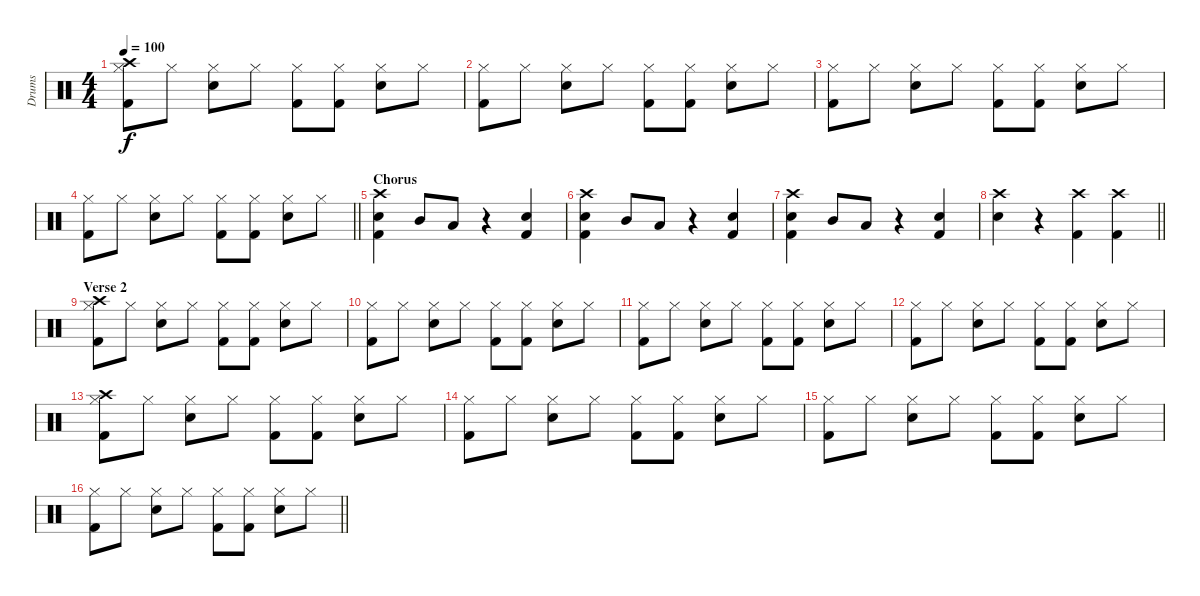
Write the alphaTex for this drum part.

\track ("Drums" "Drums") {instrument percussion}
\staff {score}
\articulation defaults
\ts (4 4)
\tempo 100
\clef neutral
\ks c
("Crash high (hit)" "Hi-Hat (closed)" "Kick (hit) 2").8{dy f} "Hi-Hat (closed)".8 ("Hi-Hat (closed)" "Snare (hit) 2").8 "Hi-Hat (closed)".8 ("Hi-Hat (closed)" "Kick (hit) 2").8 ("Hi-Hat (closed)" "Kick (hit) 2").8 ("Hi-Hat (closed)" "Snare (hit) 2").8 "Hi-Hat (closed)".8 |
("Hi-Hat (closed)" "Kick (hit) 2").8 "Hi-Hat (closed)".8 ("Hi-Hat (closed)" "Snare (hit) 2").8 "Hi-Hat (closed)".8 ("Hi-Hat (closed)" "Kick (hit) 2").8 ("Hi-Hat (closed)" "Kick (hit) 2").8 ("Hi-Hat (closed)" "Snare (hit) 2").8 "Hi-Hat (closed)".8 |
("Hi-Hat (closed)" "Kick (hit) 2").8 "Hi-Hat (closed)".8 ("Hi-Hat (closed)" "Snare (hit) 2").8 "Hi-Hat (closed)".8 ("Hi-Hat (closed)" "Kick (hit) 2").8 ("Hi-Hat (closed)" "Kick (hit) 2").8 ("Hi-Hat (closed)" "Snare (hit) 2").8 "Hi-Hat (closed)".8 |
\barLineRight lightlight
("Hi-Hat (closed)" "Kick (hit) 2").8 "Hi-Hat (closed)".8 ("Hi-Hat (closed)" "Snare (hit) 2").8 "Hi-Hat (closed)".8 ("Hi-Hat (closed)" "Kick (hit) 2").8 ("Hi-Hat (closed)" "Kick (hit) 2").8 ("Hi-Hat (closed)" "Snare (hit) 2").8 "Hi-Hat (closed)".8 |
\section ("" "Chorus")
("Crash high (hit)" "Snare (hit) 2" "Kick (hit) 2").4 "Mid Tom (hit)".8 "Low Tom (hit)".8 r.4 ("Snare (hit) 2" "Kick (hit) 2").4 |
("Crash high (hit)" "Snare (hit) 2" "Kick (hit) 2").4 "Mid Tom (hit)".8 "Low Tom (hit)".8 r.4 ("Snare (hit) 2" "Kick (hit) 2").4 |
("Crash high (hit)" "Snare (hit) 2" "Kick (hit) 2").4 "Mid Tom (hit)".8 "Low Tom (hit)".8 r.4 ("Snare (hit) 2" "Kick (hit) 2").4 |
\barLineRight lightlight
("Crash high (hit)" "Snare (hit) 2").4 r.4 ("Crash high (hit)" "Kick (hit) 2").4 ("Crash high (hit)" "Kick (hit) 2").4 |
\section ("" "Verse 2")
("Crash high (hit)" "Hi-Hat (closed)" "Kick (hit) 2").8 "Hi-Hat (closed)".8 ("Hi-Hat (closed)" "Snare (hit) 2").8 "Hi-Hat (closed)".8 ("Hi-Hat (closed)" "Kick (hit) 2").8 ("Hi-Hat (closed)" "Kick (hit) 2").8 ("Hi-Hat (closed)" "Snare (hit) 2").8 "Hi-Hat (closed)".8 |
("Hi-Hat (closed)" "Kick (hit) 2").8 "Hi-Hat (closed)".8 ("Hi-Hat (closed)" "Snare (hit) 2").8 "Hi-Hat (closed)".8 ("Hi-Hat (closed)" "Kick (hit) 2").8 ("Hi-Hat (closed)" "Kick (hit) 2").8 ("Hi-Hat (closed)" "Snare (hit) 2").8 "Hi-Hat (closed)".8 |
("Hi-Hat (closed)" "Kick (hit) 2").8 "Hi-Hat (closed)".8 ("Hi-Hat (closed)" "Snare (hit) 2").8 "Hi-Hat (closed)".8 ("Hi-Hat (closed)" "Kick (hit) 2").8 ("Hi-Hat (closed)" "Kick (hit) 2").8 ("Hi-Hat (closed)" "Snare (hit) 2").8 "Hi-Hat (closed)".8 |
("Hi-Hat (closed)" "Kick (hit) 2").8 "Hi-Hat (closed)".8 ("Hi-Hat (closed)" "Snare (hit) 2").8 "Hi-Hat (closed)".8 ("Hi-Hat (closed)" "Kick (hit) 2").8 ("Hi-Hat (closed)" "Kick (hit) 2").8 ("Hi-Hat (closed)" "Snare (hit) 2").8 "Hi-Hat (closed)".8 |
("Crash high (hit)" "Hi-Hat (closed)" "Kick (hit) 2").8 "Hi-Hat (closed)".8 ("Hi-Hat (closed)" "Snare (hit) 2").8 "Hi-Hat (closed)".8 ("Hi-Hat (closed)" "Kick (hit) 2").8 ("Hi-Hat (closed)" "Kick (hit) 2").8 ("Hi-Hat (closed)" "Snare (hit) 2").8 "Hi-Hat (closed)".8 |
("Hi-Hat (closed)" "Kick (hit) 2").8 "Hi-Hat (closed)".8 ("Hi-Hat (closed)" "Snare (hit) 2").8 "Hi-Hat (closed)".8 ("Hi-Hat (closed)" "Kick (hit) 2").8 ("Hi-Hat (closed)" "Kick (hit) 2").8 ("Hi-Hat (closed)" "Snare (hit) 2").8 "Hi-Hat (closed)".8 |
("Hi-Hat (closed)" "Kick (hit) 2").8 "Hi-Hat (closed)".8 ("Hi-Hat (closed)" "Snare (hit) 2").8 "Hi-Hat (closed)".8 ("Hi-Hat (closed)" "Kick (hit) 2").8 ("Hi-Hat (closed)" "Kick (hit) 2").8 ("Hi-Hat (closed)" "Snare (hit) 2").8 "Hi-Hat (closed)".8 |
\barLineRight lightlight
("Hi-Hat (closed)" "Kick (hit) 2").8 "Hi-Hat (closed)".8 ("Hi-Hat (closed)" "Snare (hit) 2").8 "Hi-Hat (closed)".8 ("Hi-Hat (closed)" "Kick (hit) 2").8 ("Hi-Hat (closed)" "Kick (hit) 2").8 ("Hi-Hat (closed)" "Snare (hit) 2").8 "Hi-Hat (closed)".8
